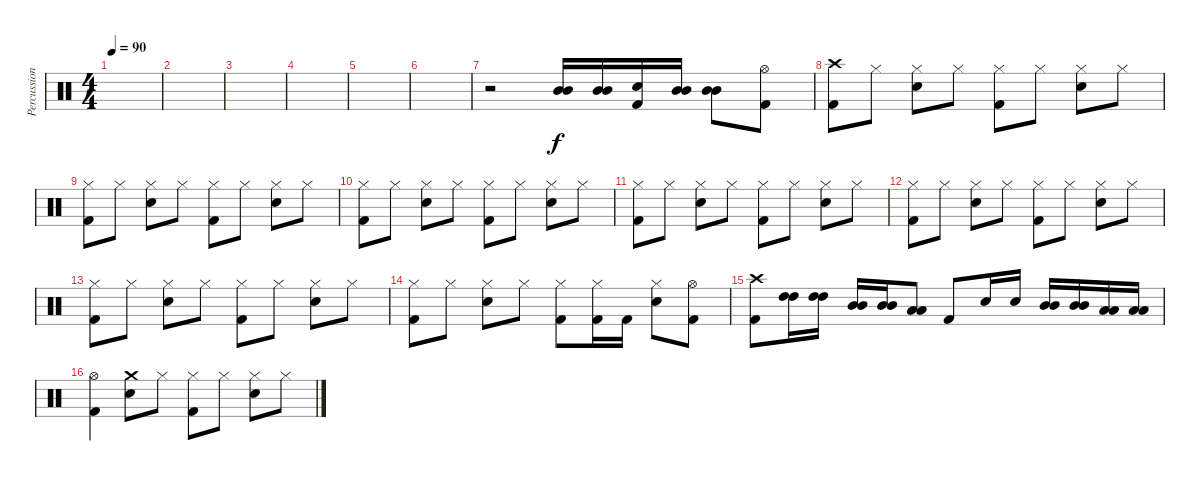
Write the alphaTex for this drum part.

\track ("Percussion" "Percussion") {instrument percussion}
\staff {score}
\articulation defaults
\ts (4 4)
\tempo 90
\clef neutral
\ks c
|
|
|
|
|
|
r.2 ("Mid Tom (hit)" "Mid Tom (hit)").16 ("Mid Tom (hit)" "Mid Tom (hit)").16 ("Snare (hit) 2" "Kick (hit) 2").16 ("Mid Tom (hit)" "Mid Tom (hit)").16 ("Mid Tom (hit)" "Mid Tom (hit)").8 ("Hi-Hat (open)" "Kick (hit) 2").8 |
("Kick (hit) 2" "Crash high (hit)").8 "Hi-Hat (closed)".8 ("Snare (hit) 2" "Hi-Hat (closed)").8 "Hi-Hat (closed)".8 ("Kick (hit) 2" "Hi-Hat (closed)").8 "Hi-Hat (closed)".8 ("Snare (hit) 2" "Hi-Hat (closed)").8 "Hi-Hat (closed)".8 |
("Kick (hit) 2" "Hi-Hat (closed)").8 "Hi-Hat (closed)".8 ("Snare (hit) 2" "Hi-Hat (closed)").8 "Hi-Hat (closed)".8 ("Kick (hit) 2" "Hi-Hat (closed)").8 "Hi-Hat (closed)".8 ("Snare (hit) 2" "Hi-Hat (closed)").8 "Hi-Hat (closed)".8 |
("Kick (hit) 2" "Hi-Hat (closed)").8 "Hi-Hat (closed)".8 ("Snare (hit) 2" "Hi-Hat (closed)").8 "Hi-Hat (closed)".8 ("Kick (hit) 2" "Hi-Hat (closed)").8 "Hi-Hat (closed)".8 ("Snare (hit) 2" "Hi-Hat (closed)").8 "Hi-Hat (closed)".8 |
("Kick (hit) 2" "Hi-Hat (closed)").8 "Hi-Hat (closed)".8 ("Snare (hit) 2" "Hi-Hat (closed)").8 "Hi-Hat (closed)".8 ("Kick (hit) 2" "Hi-Hat (closed)").8 "Hi-Hat (closed)".8 ("Snare (hit) 2" "Hi-Hat (closed)").8 "Hi-Hat (closed)".8 |
("Kick (hit) 2" "Hi-Hat (closed)").8 "Hi-Hat (closed)".8 ("Snare (hit) 2" "Hi-Hat (closed)").8 "Hi-Hat (closed)".8 ("Kick (hit) 2" "Hi-Hat (closed)").8 "Hi-Hat (closed)".8 ("Snare (hit) 2" "Hi-Hat (closed)").8 "Hi-Hat (closed)".8 |
("Kick (hit) 2" "Hi-Hat (closed)").8 "Hi-Hat (closed)".8 ("Snare (hit) 2" "Hi-Hat (closed)").8 "Hi-Hat (closed)".8 ("Kick (hit) 2" "Hi-Hat (closed)").8 "Hi-Hat (closed)".8 ("Snare (hit) 2" "Hi-Hat (closed)").8 "Hi-Hat (closed)".8 |
("Kick (hit) 2" "Hi-Hat (closed)").8 "Hi-Hat (closed)".8 ("Snare (hit) 2" "Hi-Hat (closed)").8 "Hi-Hat (closed)".8 ("Kick (hit) 2" "Hi-Hat (closed)").8 ("Kick (hit) 2" "Hi-Hat (closed)").16 "Kick (hit) 2".16 ("Snare (hit) 2" "Hi-Hat (closed)").8 ("Kick (hit) 2" "Hi-Hat (open)").8 |
("Kick (hit) 2" "Crash high (hit)").8 ("High Tom (hit)" "High Tom (hit)").16 ("High Tom (hit)" "High Tom (hit)").16 ("Mid Tom (hit)" "Mid Tom (hit)").16 ("Mid Tom (hit)" "Mid Tom (hit)").16 ("Low Tom (hit)" "Low Tom (hit)").8 "Kick (hit) 2".8 "Snare (hit) 2".16 "Snare (hit) 2".16 ("Mid Tom (hit)" "Mid Tom (hit)").16 ("Mid Tom (hit)" "Mid Tom (hit)").16 ("Low Tom (hit)" "Low Tom (hit)").16 ("Low Tom (hit)" "Low Tom (hit)").16 |
("Kick (hit) 2" "Hi-Hat (open)").4 ("Snare (hit) 2" "Crash medium (hit)").8 "Hi-Hat (closed)".8 ("Kick (hit) 2" "Hi-Hat (closed)").8 "Hi-Hat (closed)".8 ("Snare (hit) 2" "Hi-Hat (closed)").8 "Hi-Hat (closed)".8
